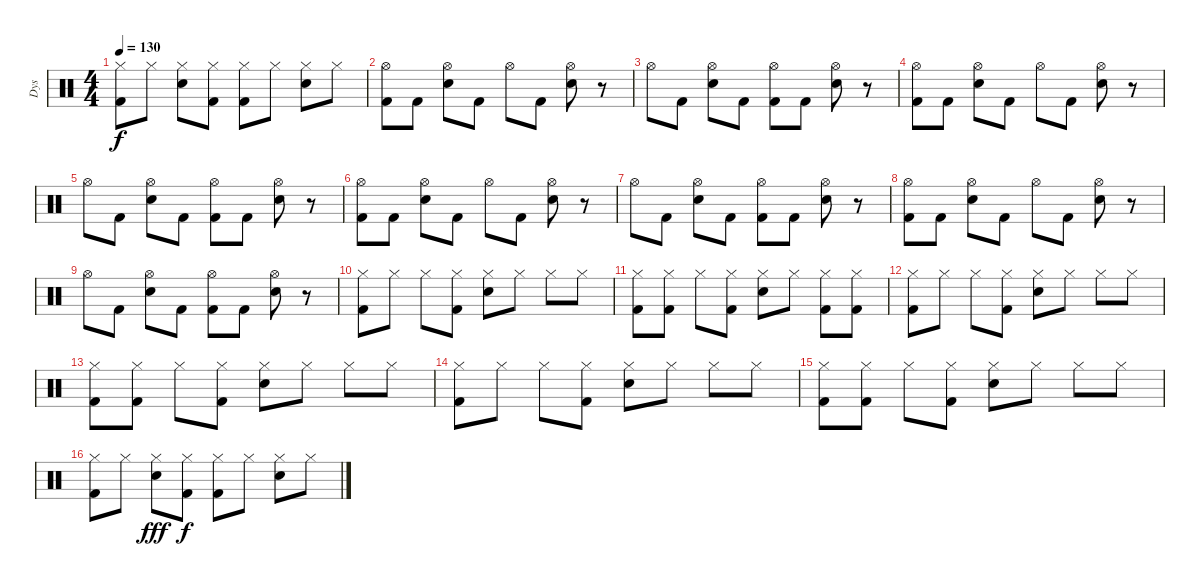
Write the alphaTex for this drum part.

\track ("Dys" "Dys") {instrument percussion}
\staff {score}
\articulation defaults
\ts (4 4)
\tempo 130
\clef neutral
\ks c
("Hi-Hat (closed)" "Kick (hit) 2").8{dy f} "Hi-Hat (closed)".8 ("Hi-Hat (closed)" "Electric Snare (hit)").8 ("Hi-Hat (closed)" "Kick (hit) 2").8 ("Hi-Hat (closed)" "Kick (hit) 2").8 "Hi-Hat (closed)".8 ("Hi-Hat (closed)" "Electric Snare (hit)").8 "Hi-Hat (closed)".8 |
("Hi-Hat (open)" "Kick (hit) 2").8 "Kick (hit) 2".8 ("Hi-Hat (open)" "Electric Snare (hit)").8 "Kick (hit) 2".8 "Hi-Hat (open)".8 "Kick (hit) 2".8 ("Hi-Hat (open)" "Electric Snare (hit)").8 r.8 |
"Hi-Hat (open)".8 "Kick (hit) 2".8 ("Hi-Hat (open)" "Electric Snare (hit)").8 "Kick (hit) 2".8 ("Hi-Hat (open)" "Kick (hit) 2").8 "Kick (hit) 2".8 ("Hi-Hat (open)" "Electric Snare (hit)").8 r.8 |
("Hi-Hat (open)" "Kick (hit) 2").8 "Kick (hit) 2".8 ("Hi-Hat (open)" "Electric Snare (hit)").8 "Kick (hit) 2".8 "Hi-Hat (open)".8 "Kick (hit) 2".8 ("Hi-Hat (open)" "Electric Snare (hit)").8 r.8 |
"Hi-Hat (open)".8 "Kick (hit) 2".8 ("Hi-Hat (open)" "Electric Snare (hit)").8 "Kick (hit) 2".8 ("Hi-Hat (open)" "Kick (hit) 2").8 "Kick (hit) 2".8 ("Hi-Hat (open)" "Electric Snare (hit)").8 r.8 |
("Hi-Hat (open)" "Kick (hit) 2").8 "Kick (hit) 2".8 ("Hi-Hat (open)" "Electric Snare (hit)").8 "Kick (hit) 2".8 "Hi-Hat (open)".8 "Kick (hit) 2".8 ("Hi-Hat (open)" "Electric Snare (hit)").8 r.8 |
"Hi-Hat (open)".8 "Kick (hit) 2".8 ("Hi-Hat (open)" "Electric Snare (hit)").8 "Kick (hit) 2".8 ("Hi-Hat (open)" "Kick (hit) 2").8 "Kick (hit) 2".8 ("Hi-Hat (open)" "Electric Snare (hit)").8 r.8 |
("Hi-Hat (open)" "Kick (hit) 2").8 "Kick (hit) 2".8 ("Hi-Hat (open)" "Electric Snare (hit)").8 "Kick (hit) 2".8 "Hi-Hat (open)".8 "Kick (hit) 2".8 ("Hi-Hat (open)" "Electric Snare (hit)").8 r.8 |
"Hi-Hat (open)".8 "Kick (hit) 2".8 ("Hi-Hat (open)" "Electric Snare (hit)").8 "Kick (hit) 2".8 ("Hi-Hat (open)" "Kick (hit) 2").8 "Kick (hit) 2".8 ("Hi-Hat (open)" "Electric Snare (hit)").8 r.8 |
("Hi-Hat (closed)" "Kick (hit) 2").8 "Hi-Hat (closed)".8 "Hi-Hat (closed)".8 ("Hi-Hat (closed)" "Kick (hit) 2").8 ("Hi-Hat (closed)" "Electric Snare (hit)").8 "Hi-Hat (closed)".8 "Hi-Hat (closed)".8 "Hi-Hat (closed)".8 |
("Hi-Hat (closed)" "Kick (hit) 2").8 ("Hi-Hat (closed)" "Kick (hit) 2").8 "Hi-Hat (closed)".8 ("Hi-Hat (closed)" "Kick (hit) 2").8 ("Hi-Hat (closed)" "Electric Snare (hit)").8 "Hi-Hat (closed)".8 ("Hi-Hat (closed)" "Kick (hit) 2").8 ("Hi-Hat (closed)" "Kick (hit) 2").8 |
("Hi-Hat (closed)" "Kick (hit) 2").8 "Hi-Hat (closed)".8 "Hi-Hat (closed)".8 ("Hi-Hat (closed)" "Kick (hit) 2").8 ("Hi-Hat (closed)" "Electric Snare (hit)").8 "Hi-Hat (closed)".8 "Hi-Hat (closed)".8 "Hi-Hat (closed)".8 |
("Hi-Hat (closed)" "Kick (hit) 2").8 ("Hi-Hat (closed)" "Kick (hit) 2").8 "Hi-Hat (closed)".8 ("Hi-Hat (closed)" "Kick (hit) 2").8 ("Hi-Hat (closed)" "Electric Snare (hit)").8 "Hi-Hat (closed)".8 "Hi-Hat (closed)".8 "Hi-Hat (closed)".8 |
("Hi-Hat (closed)" "Kick (hit) 2").8 "Hi-Hat (closed)".8 "Hi-Hat (closed)".8 ("Hi-Hat (closed)" "Kick (hit) 2").8 ("Hi-Hat (closed)" "Electric Snare (hit)").8 "Hi-Hat (closed)".8 "Hi-Hat (closed)".8 "Hi-Hat (closed)".8 |
("Hi-Hat (closed)" "Kick (hit) 2").8 ("Hi-Hat (closed)" "Kick (hit) 2").8 "Hi-Hat (closed)".8 ("Hi-Hat (closed)" "Kick (hit) 2").8 ("Hi-Hat (closed)" "Electric Snare (hit)").8 "Hi-Hat (closed)".8 "Hi-Hat (closed)".8 "Hi-Hat (closed)".8 |
("Hi-Hat (closed)" "Kick (hit) 2").8 "Hi-Hat (closed)".8 ("Hi-Hat (closed)" "Electric Snare (hit)").8{dy fff} ("Hi-Hat (closed)" "Kick (hit) 2").8{dy f} ("Hi-Hat (closed)" "Kick (hit) 2").8 "Hi-Hat (closed)".8 ("Hi-Hat (closed)" "Electric Snare (hit)").8 "Hi-Hat (closed)".8
